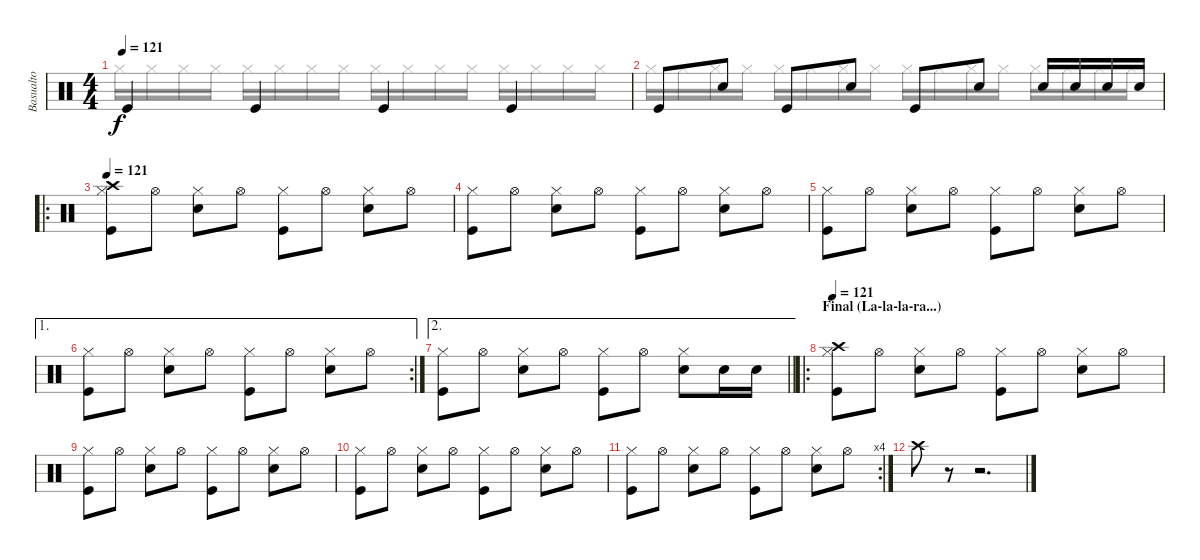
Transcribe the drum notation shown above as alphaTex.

\track ("Basualto" "Basualto") {instrument percussion}
\staff {score}
\articulation defaults
\voice
\ts (4 4)
\tempo 121
\clef neutral
\ks c "Kick (hit)".4{dy f} "Kick (hit)".4 "Kick (hit)".4 "Kick (hit)".4
|
"Kick (hit)".8 "Snare (hit) 2".8 "Kick (hit)".8 "Snare (hit) 2".8 "Kick (hit)".8 "Snare (hit) 2".8 "Snare (hit) 2".16 "Snare (hit) 2".16 "Snare (hit) 2".16 "Snare (hit) 2".16 |
\ro
\tempo 121
("Hi-Hat (closed)" "Crash high (hit)" "Kick (hit)").8 "Hi-Hat (open)".8 ("Hi-Hat (closed)" "Snare (hit) 2").8 "Hi-Hat (open)".8 ("Hi-Hat (closed)" "Kick (hit)").8 "Hi-Hat (open)".8 ("Hi-Hat (closed)" "Snare (hit) 2").8 "Hi-Hat (open)".8 |
("Hi-Hat (closed)" "Kick (hit)").8 "Hi-Hat (open)".8 ("Hi-Hat (closed)" "Snare (hit) 2").8 "Hi-Hat (open)".8 ("Hi-Hat (closed)" "Kick (hit)").8 "Hi-Hat (open)".8 ("Hi-Hat (closed)" "Snare (hit) 2").8 "Hi-Hat (open)".8 |
("Hi-Hat (closed)" "Kick (hit)").8 "Hi-Hat (open)".8 ("Hi-Hat (closed)" "Snare (hit) 2").8 "Hi-Hat (open)".8 ("Hi-Hat (closed)" "Kick (hit)").8 "Hi-Hat (open)".8 ("Hi-Hat (closed)" "Snare (hit) 2").8 "Hi-Hat (open)".8 |
\ae 1
\rc 2
("Hi-Hat (closed)" "Kick (hit)").8 "Hi-Hat (open)".8 ("Hi-Hat (closed)" "Snare (hit) 2").8 "Hi-Hat (open)".8 ("Hi-Hat (closed)" "Kick (hit)").8 "Hi-Hat (open)".8 ("Hi-Hat (closed)" "Snare (hit) 2").8 "Hi-Hat (open)".8 |
\ae 2
\barLineRight lightlight
("Hi-Hat (closed)" "Kick (hit)").8 "Hi-Hat (open)".8 ("Hi-Hat (closed)" "Snare (hit) 2").8 "Hi-Hat (open)".8 ("Hi-Hat (closed)" "Kick (hit)").8 "Hi-Hat (open)".8 ("Hi-Hat (closed)" "Snare (hit) 2").8 "Snare (hit) 2".16 "Snare (hit) 2".16 |
\ro
\section ("" "Final (La-la-la-ra...)")
\tempo 121
("Hi-Hat (closed)" "Crash high (hit)" "Kick (hit)").8 "Hi-Hat (open)".8 ("Hi-Hat (closed)" "Snare (hit) 2").8 "Hi-Hat (open)".8 ("Hi-Hat (closed)" "Kick (hit)").8 "Hi-Hat (open)".8 ("Hi-Hat (closed)" "Snare (hit) 2").8 "Hi-Hat (open)".8 |
("Hi-Hat (closed)" "Kick (hit)").8 "Hi-Hat (open)".8 ("Hi-Hat (closed)" "Snare (hit) 2").8 "Hi-Hat (open)".8 ("Hi-Hat (closed)" "Kick (hit)").8 "Hi-Hat (open)".8 ("Hi-Hat (closed)" "Snare (hit) 2").8 "Hi-Hat (open)".8 |
("Hi-Hat (closed)" "Kick (hit)").8 "Hi-Hat (open)".8 ("Hi-Hat (closed)" "Snare (hit) 2").8 "Hi-Hat (open)".8 ("Hi-Hat (closed)" "Kick (hit)").8 "Hi-Hat (open)".8 ("Hi-Hat (closed)" "Snare (hit) 2").8 "Hi-Hat (open)".8 |
\rc 4
("Hi-Hat (closed)" "Kick (hit)").8 "Hi-Hat (open)".8 ("Hi-Hat (closed)" "Snare (hit) 2").8 "Hi-Hat (open)".8 ("Hi-Hat (closed)" "Kick (hit)").8 "Hi-Hat (open)".8 ("Hi-Hat (closed)" "Snare (hit) 2").8 "Hi-Hat (open)".8 |
"Crash high (hit)".8 r.8 r.2{d}
\voice
\clef neutral
\ottava regular
\simile none
\ks c "Hi-Hat (closed)".16{dy f} "Hi-Hat (closed)".16 "Hi-Hat (closed)".16 "Hi-Hat (closed)".16 "Hi-Hat (closed)".16 "Hi-Hat (closed)".16 "Hi-Hat (closed)".16 "Hi-Hat (closed)".16 "Hi-Hat (closed)".16 "Hi-Hat (closed)".16 "Hi-Hat (closed)".16 "Hi-Hat (closed)".16 "Hi-Hat (closed)".16 "Hi-Hat (closed)".16 "Hi-Hat (closed)".16 "Hi-Hat (closed)".16
|
"Hi-Hat (closed)".16 "Hi-Hat (closed)".16 "Hi-Hat (closed)".16 "Hi-Hat (closed)".16 "Hi-Hat (closed)".16 "Hi-Hat (closed)".16 "Hi-Hat (closed)".16 "Hi-Hat (closed)".16 "Hi-Hat (closed)".16 "Hi-Hat (closed)".16 "Hi-Hat (closed)".16 "Hi-Hat (closed)".16 "Hi-Hat (closed)".16 "Hi-Hat (closed)".16 "Hi-Hat (closed)".16 "Hi-Hat (closed)".16 |
|
|
|
|
\barLineRight lightlight
|
|
|
|
|
